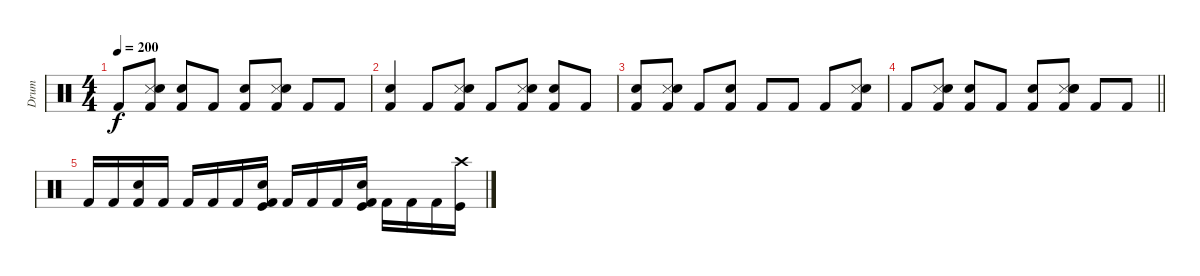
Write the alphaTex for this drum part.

\track ("Drum" "Drum") {instrument percussion}
\staff {score}
\articulation defaults
\ts (4 4)
\tempo 200
\clef neutral
\ks c "Kick (hit) 2".8{dy f}
("Snare (side stick) 3" "Electric Snare (hit)" "Kick (hit) 2").8 ("Snare (hit) 2" "Kick (hit) 2").8 "Kick (hit) 2".8 ("Snare (hit) 2" "Kick (hit) 2").8 ("Snare (side stick) 3" "Electric Snare (hit)" "Kick (hit) 2").8 "Kick (hit) 2".8 "Kick (hit) 2".8 |
("Snare (hit) 2" "Kick (hit) 2").4 "Kick (hit) 2".8 ("Snare (side stick) 3" "Electric Snare (hit)" "Kick (hit) 2").8 "Kick (hit) 2".8 ("Snare (side stick) 3" "Electric Snare (hit)" "Kick (hit) 2").8 ("Snare (hit) 2" "Kick (hit) 2").8 "Kick (hit) 2".8 |
("Snare (hit) 2" "Kick (hit) 2").8 ("Snare (side stick) 3" "Electric Snare (hit)" "Kick (hit) 2").8 "Kick (hit) 2".8 ("Snare (hit) 2" "Kick (hit) 2").8 "Kick (hit) 2".8 "Kick (hit) 2".8 "Kick (hit) 2".8 ("Snare (side stick) 3" "Electric Snare (hit)" "Kick (hit) 2").8 |
\barLineRight lightlight "Kick (hit) 2".8
("Snare (side stick) 3" "Electric Snare (hit)" "Kick (hit) 2").8 ("Snare (hit) 2" "Kick (hit) 2").8 "Kick (hit) 2".8 ("Snare (hit) 2" "Kick (hit) 2").8 ("Snare (side stick) 3" "Electric Snare (hit)" "Snare (hit) 2" "Kick (hit) 2").8 "Kick (hit) 2".8 "Kick (hit) 2".8 |
"Kick (hit) 2".16 "Kick (hit) 2".16 ("Kick (hit) 2" "Electric Snare (hit)").16 "Kick (hit) 2".16 "Kick (hit) 2".16 "Kick (hit) 2".16 "Kick (hit) 2".16 ("Kick (hit) 2" "Kick (hit)" "Electric Snare (hit)").16 "Kick (hit) 2".16 "Kick (hit) 2".16 "Kick (hit) 2".16 ("Kick (hit) 2" "Kick (hit)" "Electric Snare (hit)").16 "Kick (hit) 2".16 "Kick (hit) 2".16 "Kick (hit) 2".16 ("Kick (hit)" "Crash high (hit)").16
